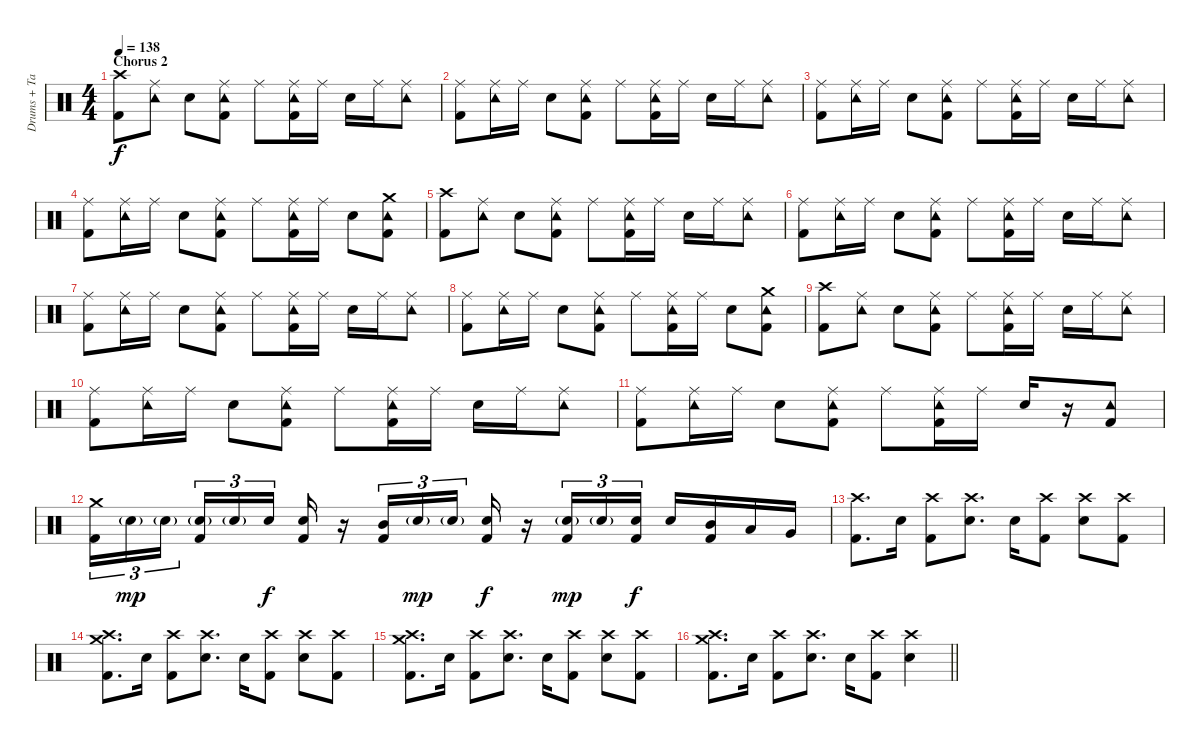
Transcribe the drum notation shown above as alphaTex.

\track ("Drums + Tambourine" "Drums + Ta") {instrument percussion}
\staff {score}
\articulation defaults
\ts (4 4)
\section ("" "Chorus 2")
\tempo 138
\clef neutral
\ks c
("Crash high (hit)" "Kick (hit) 2").8{dy f} ("Tambourine (hit)" "Ride (middle)").8 "Electric Snare (hit)".8 ("Tambourine (hit)" "Ride (middle)" "Kick (hit) 2").8 "Ride (middle)".8 ("Tambourine (hit)" "Ride (middle)" "Kick (hit) 2").16 "Ride (middle)".16 "Electric Snare (hit)".16 "Ride (middle)".16 ("Tambourine (hit)" "Ride (middle)").8 |
("Ride (middle)" "Kick (hit) 2").8 ("Tambourine (hit)" "Ride (middle)").16 "Ride (middle)".16 "Electric Snare (hit)".8 ("Tambourine (hit)" "Ride (middle)" "Kick (hit) 2").8 "Ride (middle)".8 ("Tambourine (hit)" "Ride (middle)" "Kick (hit) 2").16 "Ride (middle)".16 "Electric Snare (hit)".16 "Ride (middle)".16 ("Tambourine (hit)" "Ride (middle)").8 |
("Ride (middle)" "Kick (hit) 2").8 ("Tambourine (hit)" "Ride (middle)").16 "Ride (middle)".16 "Electric Snare (hit)".8 ("Tambourine (hit)" "Ride (middle)" "Kick (hit) 2").8 "Ride (middle)".8 ("Tambourine (hit)" "Ride (middle)" "Kick (hit) 2").16 "Ride (middle)".16 "Electric Snare (hit)".16 "Ride (middle)".16 ("Tambourine (hit)" "Ride (middle)").8 |
("Ride (middle)" "Kick (hit) 2").8 ("Tambourine (hit)" "Ride (middle)").16 "Ride (middle)".16 "Electric Snare (hit)".8 ("Tambourine (hit)" "Ride (middle)" "Kick (hit) 2").8 "Ride (middle)".8 ("Tambourine (hit)" "Ride (middle)" "Kick (hit) 2").16 "Ride (middle)".16 "Electric Snare (hit)".8 ("Tambourine (hit)" "Crash medium (hit)" "Kick (hit) 2").8 |
("Crash high (hit)" "Kick (hit) 2").8 ("Tambourine (hit)" "Ride (middle)").8 "Electric Snare (hit)".8 ("Tambourine (hit)" "Ride (middle)" "Kick (hit) 2").8 "Ride (middle)".8 ("Tambourine (hit)" "Ride (middle)" "Kick (hit) 2").16 "Ride (middle)".16 "Electric Snare (hit)".16 "Ride (middle)".16 ("Tambourine (hit)" "Ride (middle)").8 |
("Ride (middle)" "Kick (hit) 2").8 ("Tambourine (hit)" "Ride (middle)").16 "Ride (middle)".16 "Electric Snare (hit)".8 ("Tambourine (hit)" "Ride (middle)" "Kick (hit) 2").8 "Ride (middle)".8 ("Tambourine (hit)" "Ride (middle)" "Kick (hit) 2").16 "Ride (middle)".16 "Electric Snare (hit)".16 "Ride (middle)".16 ("Tambourine (hit)" "Ride (middle)").8 |
("Ride (middle)" "Kick (hit) 2").8 ("Tambourine (hit)" "Ride (middle)").16 "Ride (middle)".16 "Electric Snare (hit)".8 ("Tambourine (hit)" "Ride (middle)" "Kick (hit) 2").8 "Ride (middle)".8 ("Tambourine (hit)" "Ride (middle)" "Kick (hit) 2").16 "Ride (middle)".16 "Electric Snare (hit)".16 "Ride (middle)".16 ("Tambourine (hit)" "Ride (middle)").8 |
("Ride (middle)" "Kick (hit) 2").8 ("Tambourine (hit)" "Ride (middle)").16 "Ride (middle)".16 "Electric Snare (hit)".8 ("Tambourine (hit)" "Ride (middle)" "Kick (hit) 2").8 "Ride (middle)".8 ("Tambourine (hit)" "Ride (middle)" "Kick (hit) 2").16 "Ride (middle)".16 "Electric Snare (hit)".8 ("Tambourine (hit)" "Crash medium (hit)" "Kick (hit) 2").8 |
("Crash high (hit)" "Kick (hit) 2").8 ("Tambourine (hit)" "Ride (middle)").8 "Electric Snare (hit)".8 ("Tambourine (hit)" "Ride (middle)" "Kick (hit) 2").8 "Ride (middle)".8 ("Tambourine (hit)" "Ride (middle)" "Kick (hit) 2").16 "Ride (middle)".16 "Electric Snare (hit)".16 "Ride (middle)".16 ("Tambourine (hit)" "Ride (middle)").8 |
("Ride (middle)" "Kick (hit) 2").8 ("Tambourine (hit)" "Ride (middle)").16 "Ride (middle)".16 "Electric Snare (hit)".8 ("Tambourine (hit)" "Ride (middle)" "Kick (hit) 2").8 "Ride (middle)".8 ("Tambourine (hit)" "Ride (middle)" "Kick (hit) 2").16 "Ride (middle)".16 "Electric Snare (hit)".16 "Ride (middle)".16 ("Tambourine (hit)" "Ride (middle)").8 |
("Ride (middle)" "Kick (hit) 2").8 ("Tambourine (hit)" "Ride (middle)").16 "Ride (middle)".16 "Electric Snare (hit)".8 ("Tambourine (hit)" "Ride (middle)" "Kick (hit) 2").8 "Ride (middle)".8 ("Tambourine (hit)" "Ride (middle)" "Kick (hit) 2").16 "Ride (middle)".16 "Electric Snare (hit)".16 r.16 ("Tambourine (hit)" "Kick (hit) 2").8 |
("Crash medium (hit)" "Kick (hit) 2").16{tu (3 2)} "Electric Snare (hit)"{g}.16{tu (3 2) dy mp} "Electric Snare (hit)"{g}.16{tu (3 2) beam splitsecondary} ("Electric Snare (hit)"{g} "Kick (hit) 2").16{tu (3 2)} "Electric Snare (hit)"{g}.16{tu (3 2)} "Electric Snare (hit)".16{tu (3 2) dy f} ("Electric Snare (hit)" "Kick (hit) 2").16 r.16 ("Mid Tom (hit)" "Kick (hit) 2").16{tu (3 2)} "Electric Snare (hit)"{g}.16{tu (3 2) dy mp} "Electric Snare (hit)"{g}.16{tu (3 2)} ("Electric Snare (hit)" "Kick (hit) 2").16{dy f} r.16 ("Electric Snare (hit)"{g} "Kick (hit) 2").16{tu (3 2) dy mp} "Electric Snare (hit)"{g}.16{tu (3 2)} ("Electric Snare (hit)" "Kick (hit) 2").16{tu (3 2) dy f} "Electric Snare (hit)".16 ("Mid Tom (hit)" "Kick (hit) 2").16 "Low Tom (hit)".16 "Very Low Tom (hit)".16 |
("Crash high (hit)" "Kick (hit) 2").8{d} "Electric Snare (hit)".16 ("Crash high (hit)" "Kick (hit) 2").8 ("Crash high (hit)" "Electric Snare (hit)").8{d} "Electric Snare (hit)".16 ("Crash high (hit)" "Kick (hit) 2").8 ("Crash high (hit)" "Electric Snare (hit)").8 ("Crash high (hit)" "Kick (hit) 2").8 |
("Crash high (hit)" "Crash medium (hit)" "Kick (hit) 2").8{d} "Electric Snare (hit)".16 ("Crash high (hit)" "Kick (hit) 2").8 ("Crash high (hit)" "Electric Snare (hit)").8{d} "Electric Snare (hit)".16 ("Crash high (hit)" "Kick (hit) 2").8 ("Crash high (hit)" "Electric Snare (hit)").8 ("Crash high (hit)" "Kick (hit) 2").8 |
("Crash high (hit)" "Crash medium (hit)" "Kick (hit) 2").8{d} "Electric Snare (hit)".16 ("Crash high (hit)" "Kick (hit) 2").8 ("Crash high (hit)" "Electric Snare (hit)").8{d} "Electric Snare (hit)".16 ("Crash high (hit)" "Kick (hit) 2").8 ("Crash high (hit)" "Electric Snare (hit)").8 ("Crash high (hit)" "Kick (hit) 2").8 |
\barLineRight lightlight
("Crash high (hit)" "Crash medium (hit)" "Kick (hit) 2").8{d} "Electric Snare (hit)".16 ("Crash high (hit)" "Kick (hit) 2").8 ("Crash high (hit)" "Electric Snare (hit)").8{d} "Electric Snare (hit)".16 ("Crash high (hit)" "Kick (hit) 2").8 ("Crash high (hit)" "Electric Snare (hit)").4
